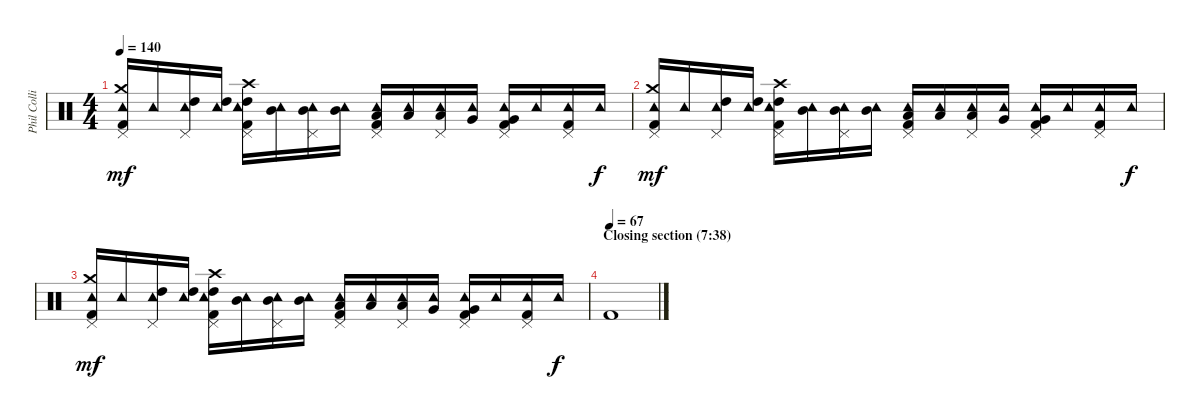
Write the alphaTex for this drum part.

\track ("Phil Collins (drums)" "Phil Colli") {instrument percussion}
\staff {score}
\articulation defaults
\ts (4 4)
\tempo 140
\clef neutral
\ks c
("Tambourine (hit)" "Crash medium (hit)" "Pedal Hi-Hat (hit)" "Kick (hit) 2").16{dy mf} "Tambourine (hit)".16 ("Tambourine (hit)" "High Tom (hit)" "Pedal Hi-Hat (hit)").16 ("Tambourine (hit)" "High Tom (hit)").16 ("Crash high (hit)" "Tambourine (hit)" "High Tom (hit)" "Pedal Hi-Hat (hit)" "Kick (hit) 2").16 ("Tambourine (hit)" "Mid Tom (hit)").16 ("Tambourine (hit)" "Mid Tom (hit)" "Pedal Hi-Hat (hit)").16 ("Tambourine (hit)" "Mid Tom (hit)").16 ("Tambourine (hit)" "Low Tom (hit)" "Pedal Hi-Hat (hit)" "Kick (hit) 2").16 ("Tambourine (hit)" "Low Tom (hit)").16 ("Tambourine (hit)" "Low Tom (hit)" "Pedal Hi-Hat (hit)").16 ("Tambourine (hit)" "Very Low Tom (hit)").16 ("Tambourine (hit)" "Very Low Tom (hit)" "Pedal Hi-Hat (hit)" "Kick (hit) 2").16 "Tambourine (hit)".16 ("Tambourine (hit)" "Pedal Hi-Hat (hit)" "Kick (hit) 2").16 "Tambourine (hit)".16{dy f} |
("Tambourine (hit)" "Crash medium (hit)" "Pedal Hi-Hat (hit)" "Kick (hit) 2").16{dy mf} "Tambourine (hit)".16 ("Tambourine (hit)" "High Tom (hit)" "Pedal Hi-Hat (hit)").16 ("Tambourine (hit)" "High Tom (hit)").16 ("Crash high (hit)" "Tambourine (hit)" "High Tom (hit)" "Pedal Hi-Hat (hit)" "Kick (hit) 2").16 ("Tambourine (hit)" "Mid Tom (hit)").16 ("Tambourine (hit)" "Mid Tom (hit)" "Pedal Hi-Hat (hit)").16 ("Tambourine (hit)" "Mid Tom (hit)").16 ("Tambourine (hit)" "Low Tom (hit)" "Pedal Hi-Hat (hit)" "Kick (hit) 2").16 ("Tambourine (hit)" "Low Tom (hit)").16 ("Tambourine (hit)" "Low Tom (hit)" "Pedal Hi-Hat (hit)").16 ("Tambourine (hit)" "Very Low Tom (hit)").16 ("Tambourine (hit)" "Very Low Tom (hit)" "Pedal Hi-Hat (hit)" "Kick (hit) 2").16 "Tambourine (hit)".16 ("Tambourine (hit)" "Pedal Hi-Hat (hit)" "Kick (hit) 2").16 "Tambourine (hit)".16{dy f} |
("Tambourine (hit)" "Crash medium (hit)" "Pedal Hi-Hat (hit)" "Kick (hit) 2").16{dy mf} "Tambourine (hit)".16 ("Tambourine (hit)" "High Tom (hit)" "Pedal Hi-Hat (hit)").16 ("Tambourine (hit)" "High Tom (hit)").16 ("Crash high (hit)" "Tambourine (hit)" "High Tom (hit)" "Pedal Hi-Hat (hit)" "Kick (hit) 2").16 ("Tambourine (hit)" "Mid Tom (hit)").16 ("Tambourine (hit)" "Mid Tom (hit)" "Pedal Hi-Hat (hit)").16 ("Tambourine (hit)" "Mid Tom (hit)").16 ("Tambourine (hit)" "Low Tom (hit)" "Pedal Hi-Hat (hit)" "Kick (hit) 2").16 ("Tambourine (hit)" "Low Tom (hit)").16 ("Tambourine (hit)" "Low Tom (hit)" "Pedal Hi-Hat (hit)").16 ("Tambourine (hit)" "Very Low Tom (hit)").16 ("Tambourine (hit)" "Very Low Tom (hit)" "Pedal Hi-Hat (hit)" "Kick (hit) 2").16 "Tambourine (hit)".16 ("Tambourine (hit)" "Pedal Hi-Hat (hit)" "Kick (hit) 2").16 "Tambourine (hit)".16{dy f} |
\section ("" "Closing section (7:38)")
\tempo (67)
"Kick (hit) 2".1
